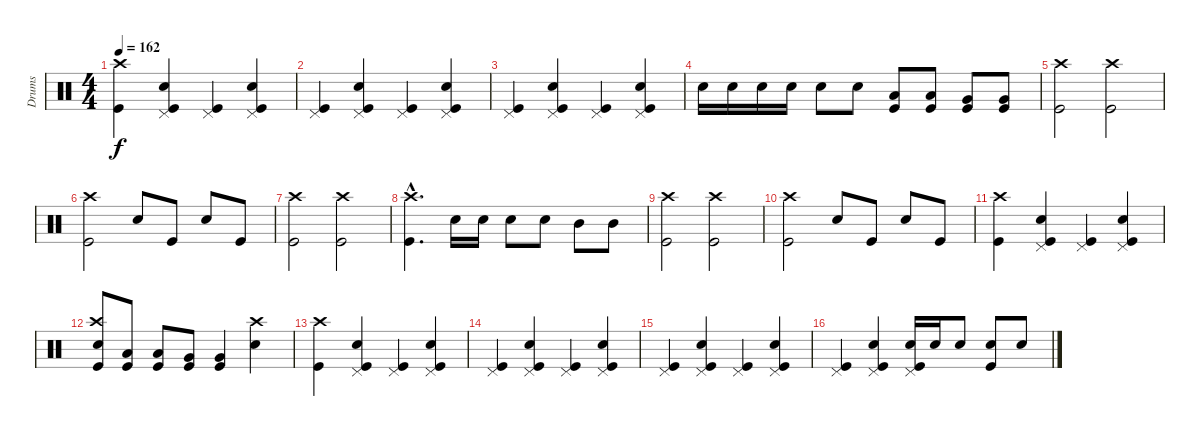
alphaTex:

\track ("Drums" "Drums") {instrument percussion}
\staff {score}
\articulation defaults
\ts (4 4)
\tempo 162
\clef neutral
\ks c
("Kick (hit)" "Crash high (hit)").4{dy f} ("Kick (hit)" "Snare (hit) 2" "Pedal Hi-Hat (hit)").4 ("Kick (hit)" "Pedal Hi-Hat (hit)").4 ("Kick (hit)" "Snare (hit) 2" "Pedal Hi-Hat (hit)").4 |
("Kick (hit)" "Pedal Hi-Hat (hit)").4 ("Kick (hit)" "Snare (hit) 2" "Pedal Hi-Hat (hit)").4 ("Kick (hit)" "Pedal Hi-Hat (hit)").4 ("Kick (hit)" "Snare (hit) 2" "Pedal Hi-Hat (hit)").4 |
("Kick (hit)" "Pedal Hi-Hat (hit)").4 ("Kick (hit)" "Snare (hit) 2" "Pedal Hi-Hat (hit)").4 ("Kick (hit)" "Pedal Hi-Hat (hit)").4 ("Kick (hit)" "Snare (hit) 2" "Pedal Hi-Hat (hit)").4 |
"Snare (hit) 2".16 "Snare (hit) 2".16 "Snare (hit) 2".16 "Snare (hit) 2".16 "Snare (hit) 2".8 "Snare (hit) 2".8 ("Kick (hit)" "Low Tom (hit)").8 ("Kick (hit)" "Low Tom (hit)").8 ("Kick (hit)" "Very Low Tom (hit)").8 ("Kick (hit)" "Very Low Tom (hit)").8 |
("Kick (hit)" "Crash high (hit)").2 ("Kick (hit)" "Crash high (hit)").2 |
("Kick (hit)" "Crash high (hit)").2 "Snare (hit) 2".8 "Kick (hit)".8 "Snare (hit) 2".8 "Kick (hit)".8 |
("Kick (hit)" "Crash high (hit)").2 ("Kick (hit)" "Crash high (hit)").2 |
("Kick (hit)"{hac} "Crash high (hit)"{hac}).4{d} "Snare (hit) 2".16 "Snare (hit) 2".16 "Snare (hit) 2".8 "Snare (hit) 2".8 "Mid Tom (hit)".8 "Mid Tom (hit)".8 |
("Kick (hit)" "Crash high (hit)").2 ("Kick (hit)" "Crash high (hit)").2 |
("Kick (hit)" "Crash high (hit)").2 "Snare (hit) 2".8 "Kick (hit)".8 "Snare (hit) 2".8 "Kick (hit)".8 |
("Kick (hit)" "Crash high (hit)").4 ("Kick (hit)" "Snare (hit) 2" "Pedal Hi-Hat (hit)").4 ("Kick (hit)" "Pedal Hi-Hat (hit)").4 ("Kick (hit)" "Snare (hit) 2" "Pedal Hi-Hat (hit)").4 |
("Kick (hit)" "Snare (hit) 2" "Crash high (hit)").8 ("Kick (hit)" "Low Tom (hit)").8 ("Kick (hit)" "Low Tom (hit)").8 ("Kick (hit)" "Very Low Tom (hit)").8 ("Kick (hit)" "Very Low Tom (hit)").4 ("Snare (hit) 2" "Crash high (hit)").4 |
("Kick (hit)" "Crash high (hit)").4 ("Kick (hit)" "Snare (hit) 2" "Pedal Hi-Hat (hit)").4 ("Kick (hit)" "Pedal Hi-Hat (hit)").4 ("Kick (hit)" "Snare (hit) 2" "Pedal Hi-Hat (hit)").4 |
("Kick (hit)" "Pedal Hi-Hat (hit)").4 ("Kick (hit)" "Snare (hit) 2" "Pedal Hi-Hat (hit)").4 ("Kick (hit)" "Pedal Hi-Hat (hit)").4 ("Kick (hit)" "Snare (hit) 2" "Pedal Hi-Hat (hit)").4 |
("Kick (hit)" "Pedal Hi-Hat (hit)").4 ("Kick (hit)" "Snare (hit) 2" "Pedal Hi-Hat (hit)").4 ("Kick (hit)" "Pedal Hi-Hat (hit)").4 ("Kick (hit)" "Snare (hit) 2" "Pedal Hi-Hat (hit)").4 |
("Kick (hit)" "Pedal Hi-Hat (hit)").4 ("Kick (hit)" "Snare (hit) 2" "Pedal Hi-Hat (hit)").4 ("Kick (hit)" "Snare (hit) 2" "Pedal Hi-Hat (hit)").16 "Snare (hit) 2".16 "Snare (hit) 2".8 ("Kick (hit)" "Snare (hit) 2").8 "Snare (hit) 2".8
